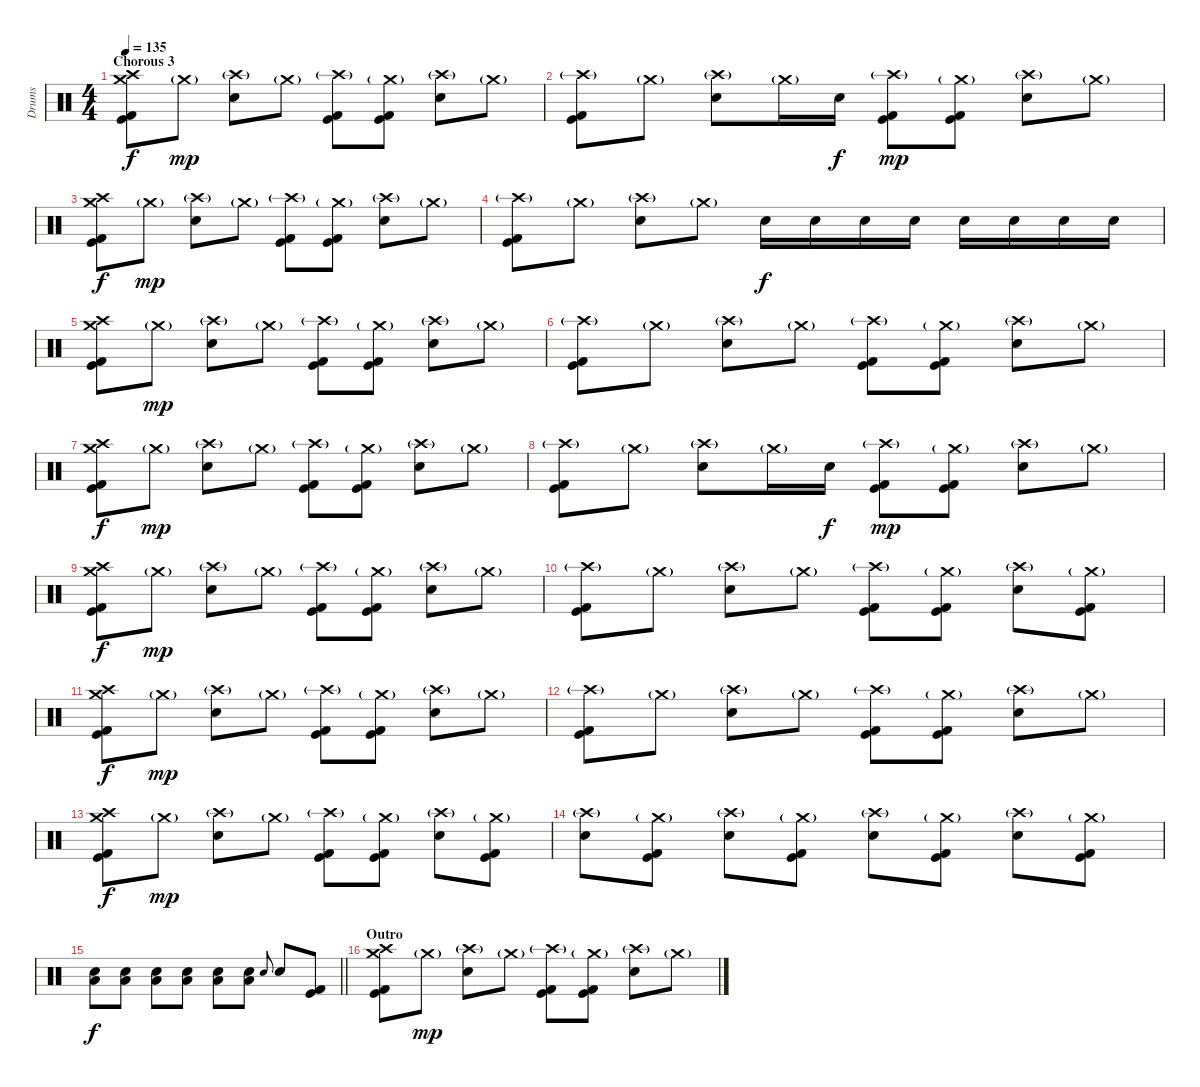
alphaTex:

\track ("Drums" "Drums") {instrument percussion}
\staff {score}
\articulation defaults
\ts (4 4)
\section ("" "Chorous 3")
\tempo 135
\clef neutral
\ks c
("Crash high (hit)" "Crash medium (hit)" "Kick (hit)" "Kick (hit) 2").8{dy f} "Crash medium (hit)"{g}.8{dy mp} ("Crash high (hit)"{g} "Electric Snare (hit)").8 "Crash medium (hit)"{g}.8 ("Crash high (hit)"{g} "Kick (hit)" "Kick (hit) 2").8 ("Crash medium (hit)"{g} "Kick (hit)" "Kick (hit) 2").8 ("Crash high (hit)"{g} "Electric Snare (hit)").8 "Crash medium (hit)"{g}.8 |
("Crash high (hit)"{g} "Kick (hit)" "Kick (hit) 2").8 "Crash medium (hit)"{g}.8 ("Crash high (hit)"{g} "Electric Snare (hit)").8 "Crash medium (hit)"{g}.16 "Electric Snare (hit)".16{dy f} ("Crash high (hit)"{g} "Kick (hit)" "Kick (hit) 2").8{dy mp} ("Crash medium (hit)"{g} "Kick (hit)" "Kick (hit) 2").8 ("Crash high (hit)"{g} "Electric Snare (hit)").8 "Crash medium (hit)"{g}.8 |
("Crash high (hit)" "Crash medium (hit)" "Kick (hit)" "Kick (hit) 2").8{dy f} "Crash medium (hit)"{g}.8{dy mp} ("Crash high (hit)"{g} "Electric Snare (hit)").8 "Crash medium (hit)"{g}.8 ("Crash high (hit)"{g} "Kick (hit)" "Kick (hit) 2").8 ("Crash medium (hit)"{g} "Kick (hit)" "Kick (hit) 2").8 ("Crash high (hit)"{g} "Electric Snare (hit)").8 "Crash medium (hit)"{g}.8 |
("Crash high (hit)"{g} "Kick (hit)" "Kick (hit) 2").8 "Crash medium (hit)"{g}.8 ("Crash high (hit)"{g} "Electric Snare (hit)").8 "Crash medium (hit)"{g}.8 "Electric Snare (hit)".16{dy f} "Electric Snare (hit)".16 "Electric Snare (hit)".16 "Electric Snare (hit)".16 "Electric Snare (hit)".16 "Electric Snare (hit)".16 "Electric Snare (hit)".16 "Electric Snare (hit)".16 |
("Crash high (hit)" "Crash medium (hit)" "Kick (hit)" "Kick (hit) 2").8 "Crash medium (hit)"{g}.8{dy mp} ("Crash high (hit)"{g} "Electric Snare (hit)").8 "Crash medium (hit)"{g}.8 ("Crash high (hit)"{g} "Kick (hit)" "Kick (hit) 2").8 ("Crash medium (hit)"{g} "Kick (hit)" "Kick (hit) 2").8 ("Crash high (hit)"{g} "Electric Snare (hit)").8 "Crash medium (hit)"{g}.8 |
("Crash high (hit)"{g} "Kick (hit)" "Kick (hit) 2").8 "Crash medium (hit)"{g}.8 ("Crash high (hit)"{g} "Electric Snare (hit)").8 "Crash medium (hit)"{g}.8 ("Crash high (hit)"{g} "Kick (hit)" "Kick (hit) 2").8 ("Crash medium (hit)"{g} "Kick (hit)" "Kick (hit) 2").8 ("Crash high (hit)"{g} "Electric Snare (hit)").8 "Crash medium (hit)"{g}.8 |
("Crash high (hit)" "Crash medium (hit)" "Kick (hit)" "Kick (hit) 2").8{dy f} "Crash medium (hit)"{g}.8{dy mp} ("Crash high (hit)"{g} "Electric Snare (hit)").8 "Crash medium (hit)"{g}.8 ("Crash high (hit)"{g} "Kick (hit)" "Kick (hit) 2").8 ("Crash medium (hit)"{g} "Kick (hit)" "Kick (hit) 2").8 ("Crash high (hit)"{g} "Electric Snare (hit)").8 "Crash medium (hit)"{g}.8 |
("Crash high (hit)"{g} "Kick (hit)" "Kick (hit) 2").8 "Crash medium (hit)"{g}.8 ("Crash high (hit)"{g} "Electric Snare (hit)").8 "Crash medium (hit)"{g}.16 "Electric Snare (hit)".16{dy f} ("Crash high (hit)"{g} "Kick (hit)" "Kick (hit) 2").8{dy mp} ("Crash medium (hit)"{g} "Kick (hit)" "Kick (hit) 2").8 ("Crash high (hit)"{g} "Electric Snare (hit)").8 "Crash medium (hit)"{g}.8 |
("Crash high (hit)" "Crash medium (hit)" "Kick (hit)" "Kick (hit) 2").8{dy f} "Crash medium (hit)"{g}.8{dy mp} ("Crash high (hit)"{g} "Electric Snare (hit)").8 "Crash medium (hit)"{g}.8 ("Crash high (hit)"{g} "Kick (hit)" "Kick (hit) 2").8 ("Crash medium (hit)"{g} "Kick (hit)" "Kick (hit) 2").8 ("Crash high (hit)"{g} "Electric Snare (hit)").8 "Crash medium (hit)"{g}.8 |
("Crash high (hit)"{g} "Kick (hit)" "Kick (hit) 2").8 "Crash medium (hit)"{g}.8 ("Crash high (hit)"{g} "Electric Snare (hit)").8 "Crash medium (hit)"{g}.8 ("Crash high (hit)"{g} "Kick (hit)" "Kick (hit) 2").8 ("Crash medium (hit)"{g} "Kick (hit)" "Kick (hit) 2").8 ("Crash high (hit)"{g} "Electric Snare (hit)").8 ("Crash medium (hit)"{g} "Kick (hit)" "Kick (hit) 2").8 |
("Crash high (hit)" "Crash medium (hit)" "Kick (hit)" "Kick (hit) 2").8{dy f} "Crash medium (hit)"{g}.8{dy mp} ("Crash high (hit)"{g} "Electric Snare (hit)").8 "Crash medium (hit)"{g}.8 ("Crash high (hit)"{g} "Kick (hit)" "Kick (hit) 2").8 ("Crash medium (hit)"{g} "Kick (hit)" "Kick (hit) 2").8 ("Crash high (hit)"{g} "Electric Snare (hit)").8 "Crash medium (hit)"{g}.8 |
("Crash high (hit)"{g} "Kick (hit)" "Kick (hit) 2").8 "Crash medium (hit)"{g}.8 ("Crash high (hit)"{g} "Electric Snare (hit)").8 "Crash medium (hit)"{g}.8 ("Crash high (hit)"{g} "Kick (hit)" "Kick (hit) 2").8 ("Crash medium (hit)"{g} "Kick (hit)" "Kick (hit) 2").8 ("Crash high (hit)"{g} "Electric Snare (hit)").8 "Crash medium (hit)"{g}.8 |
("Crash high (hit)" "Crash medium (hit)" "Kick (hit)" "Kick (hit) 2").8{dy f} "Crash medium (hit)"{g}.8{dy mp} ("Crash high (hit)"{g} "Electric Snare (hit)").8 "Crash medium (hit)"{g}.8 ("Crash high (hit)"{g} "Kick (hit)" "Kick (hit) 2").8 ("Crash medium (hit)"{g} "Kick (hit)" "Kick (hit) 2").8 ("Crash high (hit)"{g} "Electric Snare (hit)").8 ("Crash medium (hit)"{g} "Kick (hit)" "Kick (hit) 2").8 |
("Crash high (hit)"{g} "Electric Snare (hit)").8 ("Crash medium (hit)"{g} "Kick (hit)" "Kick (hit) 2").8 ("Crash high (hit)"{g} "Electric Snare (hit)").8 ("Crash medium (hit)"{g} "Kick (hit)" "Kick (hit) 2").8 ("Crash high (hit)"{g} "Electric Snare (hit)").8 ("Crash medium (hit)"{g} "Kick (hit)" "Kick (hit) 2").8 ("Crash high (hit)"{g} "Electric Snare (hit)").8 ("Crash medium (hit)"{g} "Kick (hit)" "Kick (hit) 2").8 |
\barLineRight lightlight
("Electric Snare (hit)" "Low Floor Tom (hit)").8{dy f} ("Electric Snare (hit)" "Low Floor Tom (hit)").8 ("Electric Snare (hit)" "Low Floor Tom (hit)").8 ("Electric Snare (hit)" "Low Floor Tom (hit)").8 ("Electric Snare (hit)" "Low Floor Tom (hit)").8 ("Electric Snare (hit)" "Low Floor Tom (hit)").8 "Electric Snare (hit)".8{gr onbeat} "Electric Snare (hit)".8 ("Kick (hit)" "Kick (hit) 2").8 |
\section ("" "Outro")
("Crash high (hit)" "Crash medium (hit)" "Kick (hit)" "Kick (hit) 2").8 "Crash medium (hit)"{g}.8{dy mp} ("Crash high (hit)"{g} "Electric Snare (hit)").8 "Crash medium (hit)"{g}.8 ("Crash high (hit)"{g} "Kick (hit)" "Kick (hit) 2").8 ("Crash medium (hit)"{g} "Kick (hit)" "Kick (hit) 2").8 ("Crash high (hit)"{g} "Electric Snare (hit)").8 "Crash medium (hit)"{g}.8
